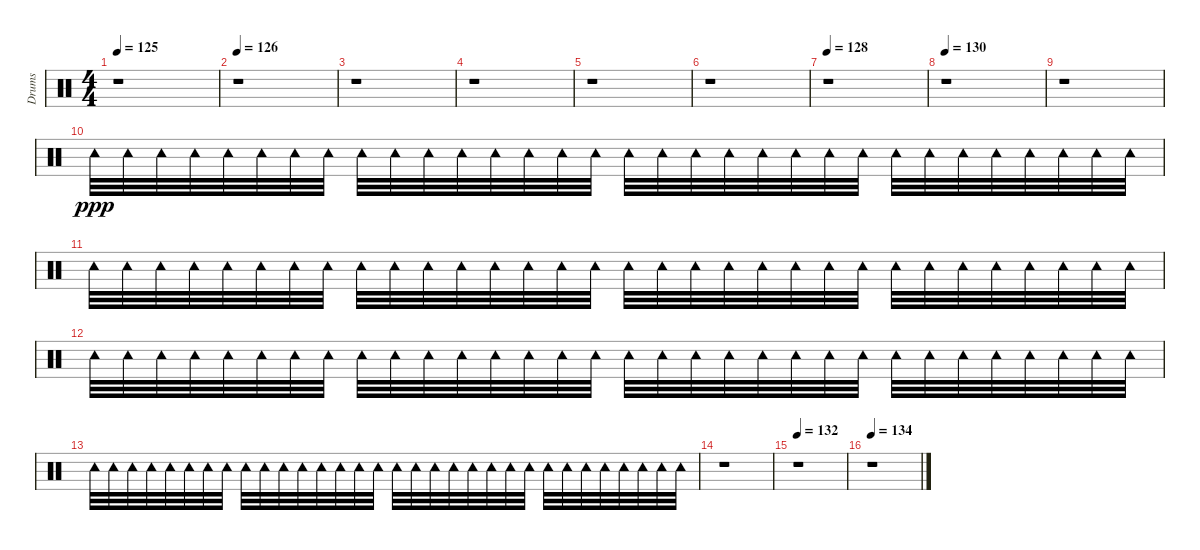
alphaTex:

\track ("Drums" "Drums") {instrument percussion}
\staff {score}
\articulation defaults
\ts (4 4)
\tempo 125
\clef neutral
\ks c
r.1{dy pp} |
\tempo 126
r.1 |
r.1 |
r.1 |
r.1 |
r.1 |
\tempo 128
r.1 |
\tempo 130
r.1 |
r.1 |
"Tambourine (hit)".32{dy ppp} "Tambourine (hit)".32 "Tambourine (hit)".32 "Tambourine (hit)".32 "Tambourine (hit)".32 "Tambourine (hit)".32 "Tambourine (hit)".32 "Tambourine (hit)".32 "Tambourine (hit)".32 "Tambourine (hit)".32 "Tambourine (hit)".32 "Tambourine (hit)".32 "Tambourine (hit)".32 "Tambourine (hit)".32 "Tambourine (hit)".32 "Tambourine (hit)".32 "Tambourine (hit)".32 "Tambourine (hit)".32 "Tambourine (hit)".32 "Tambourine (hit)".32 "Tambourine (hit)".32 "Tambourine (hit)".32 "Tambourine (hit)".32 "Tambourine (hit)".32 "Tambourine (hit)".32 "Tambourine (hit)".32 "Tambourine (hit)".32 "Tambourine (hit)".32 "Tambourine (hit)".32 "Tambourine (hit)".32 "Tambourine (hit)".32 "Tambourine (hit)".32 |
"Tambourine (hit)".32 "Tambourine (hit)".32 "Tambourine (hit)".32 "Tambourine (hit)".32 "Tambourine (hit)".32 "Tambourine (hit)".32 "Tambourine (hit)".32 "Tambourine (hit)".32 "Tambourine (hit)".32 "Tambourine (hit)".32 "Tambourine (hit)".32 "Tambourine (hit)".32 "Tambourine (hit)".32 "Tambourine (hit)".32 "Tambourine (hit)".32 "Tambourine (hit)".32 "Tambourine (hit)".32 "Tambourine (hit)".32 "Tambourine (hit)".32 "Tambourine (hit)".32 "Tambourine (hit)".32 "Tambourine (hit)".32 "Tambourine (hit)".32 "Tambourine (hit)".32 "Tambourine (hit)".32 "Tambourine (hit)".32 "Tambourine (hit)".32 "Tambourine (hit)".32 "Tambourine (hit)".32 "Tambourine (hit)".32 "Tambourine (hit)".32 "Tambourine (hit)".32 |
"Tambourine (hit)".32 "Tambourine (hit)".32 "Tambourine (hit)".32 "Tambourine (hit)".32 "Tambourine (hit)".32 "Tambourine (hit)".32 "Tambourine (hit)".32 "Tambourine (hit)".32 "Tambourine (hit)".32 "Tambourine (hit)".32 "Tambourine (hit)".32 "Tambourine (hit)".32 "Tambourine (hit)".32 "Tambourine (hit)".32 "Tambourine (hit)".32 "Tambourine (hit)".32 "Tambourine (hit)".32 "Tambourine (hit)".32 "Tambourine (hit)".32 "Tambourine (hit)".32 "Tambourine (hit)".32 "Tambourine (hit)".32 "Tambourine (hit)".32 "Tambourine (hit)".32 "Tambourine (hit)".32 "Tambourine (hit)".32 "Tambourine (hit)".32 "Tambourine (hit)".32 "Tambourine (hit)".32 "Tambourine (hit)".32 "Tambourine (hit)".32 "Tambourine (hit)".32 |
"Tambourine (hit)".32 "Tambourine (hit)".32 "Tambourine (hit)".32 "Tambourine (hit)".32 "Tambourine (hit)".32 "Tambourine (hit)".32 "Tambourine (hit)".32 "Tambourine (hit)".32 "Tambourine (hit)".32 "Tambourine (hit)".32 "Tambourine (hit)".32 "Tambourine (hit)".32 "Tambourine (hit)".32 "Tambourine (hit)".32 "Tambourine (hit)".32 "Tambourine (hit)".32 "Tambourine (hit)".32 "Tambourine (hit)".32 "Tambourine (hit)".32 "Tambourine (hit)".32 "Tambourine (hit)".32 "Tambourine (hit)".32 "Tambourine (hit)".32 "Tambourine (hit)".32 "Tambourine (hit)".32 "Tambourine (hit)".32 "Tambourine (hit)".32 "Tambourine (hit)".32 "Tambourine (hit)".32 "Tambourine (hit)".32 "Tambourine (hit)".32 "Tambourine (hit)".32 |
r.1 |
\tempo 132
r.1 |
\tempo 134
r.1
